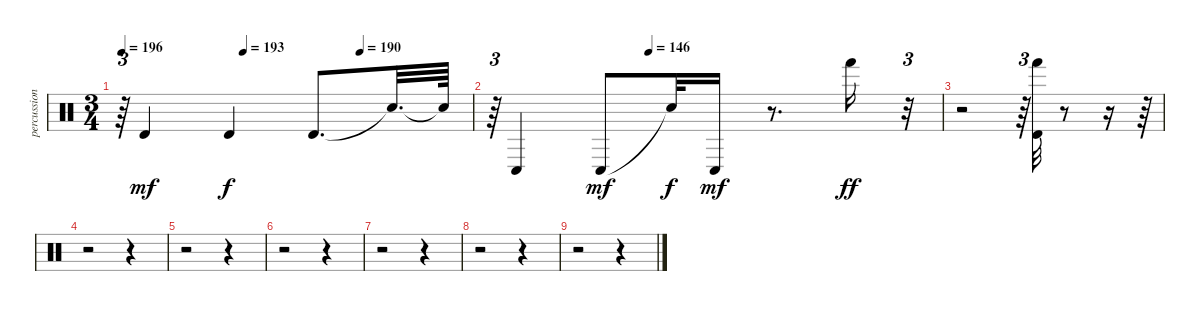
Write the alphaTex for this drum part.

\track ("percussion" "percussion") {instrument percussion}
\staff {score}
\articulation defaults
\ts (3 4)
\tempo 196
\tempo (193 0.3472222222222222)
\tempo (190 0.6805555555555556)
\clef neutral
\ks c
r.64{tu (3 2) dy p} "Timbale high (hit)".4{dy mf} "Timbale high (hit)".4{dy f} "Timbale high (hit)".8{d} "Snare (hit)"{t}.32{d} "Snare (hit)"{t}.64 |
\tempo (146 0.3472222222222222)
r.64{tu (3 2)} "Conga low (hit)".4 "Conga low (hit)".8{dy mf} "Snare (hit)"{t}.32{dy f} "Conga low (hit)".16{dy mf} r.8{d} "Hand (hit)".16{dy ff} r.32{tu (3 2)} |
r.2 r.64{tu (3 2)} ("Timbale high (hit)" "Hand (hit)").32 r.8 r.16 r.64 |
r.2 r.4 |
r.2 r.4 |
r.2 r.4 |
r.2 r.4 |
r.2 r.4 |
r.2 r.4
